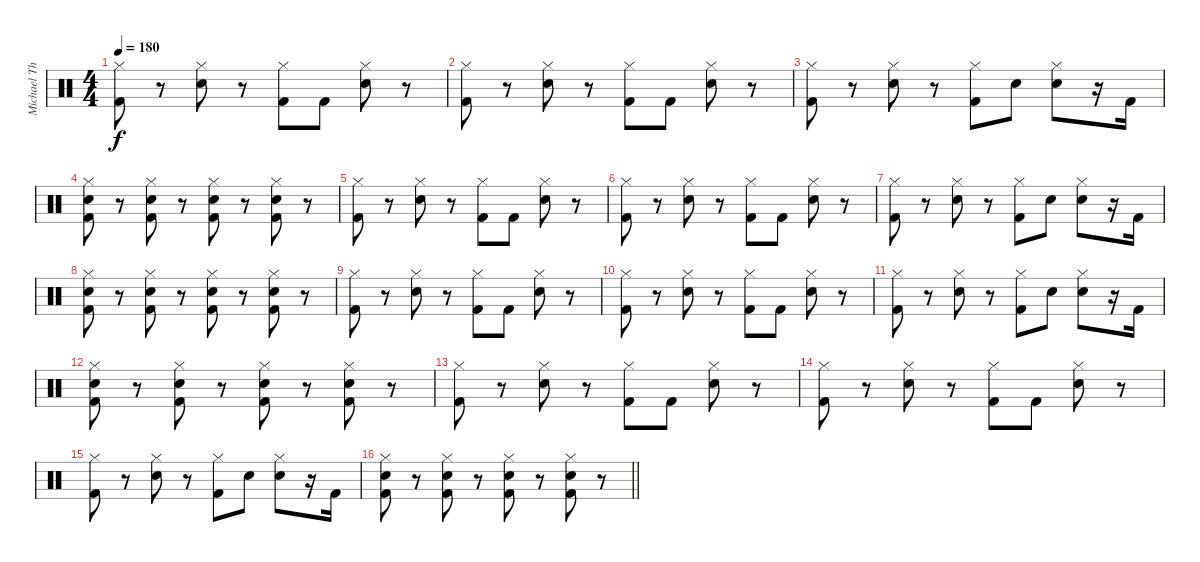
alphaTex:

\track ("Michael Thomas" "Michael Th") {instrument percussion}
\staff
\articulation defaults
\ts (4 4)
\tempo 180
\clef neutral
\ks c
("Hi-Hat (closed)" "Kick (hit) 2").8{dy f} r.8 ("Hi-Hat (closed)" "Electric Snare (hit)").8 r.8 ("Hi-Hat (closed)" "Kick (hit) 2").8 "Kick (hit) 2".8 ("Hi-Hat (closed)" "Electric Snare (hit)").8 r.8 |
("Hi-Hat (closed)" "Kick (hit) 2").8 r.8 ("Hi-Hat (closed)" "Electric Snare (hit)").8 r.8 ("Hi-Hat (closed)" "Kick (hit) 2").8 "Kick (hit) 2".8 ("Hi-Hat (closed)" "Electric Snare (hit)").8 r.8 |
("Hi-Hat (closed)" "Kick (hit) 2").8 r.8 ("Hi-Hat (closed)" "Electric Snare (hit)").8 r.8 ("Hi-Hat (closed)" "Kick (hit) 2").8 "Electric Snare (hit)".8 ("Hi-Hat (closed)" "Electric Snare (hit)").8 r.16 "Kick (hit) 2".16 |
("Hi-Hat (closed)" "Electric Snare (hit)" "Kick (hit) 2").8 r.8 ("Hi-Hat (closed)" "Electric Snare (hit)" "Kick (hit) 2").8 r.8 ("Hi-Hat (closed)" "Electric Snare (hit)" "Kick (hit) 2").8 r.8 ("Hi-Hat (closed)" "Electric Snare (hit)" "Kick (hit) 2").8 r.8 |
("Hi-Hat (closed)" "Kick (hit) 2").8 r.8 ("Hi-Hat (closed)" "Electric Snare (hit)").8 r.8 ("Hi-Hat (closed)" "Kick (hit) 2").8 "Kick (hit) 2".8 ("Hi-Hat (closed)" "Electric Snare (hit)").8 r.8 |
("Hi-Hat (closed)" "Kick (hit) 2").8 r.8 ("Hi-Hat (closed)" "Electric Snare (hit)").8 r.8 ("Hi-Hat (closed)" "Kick (hit) 2").8 "Kick (hit) 2".8 ("Hi-Hat (closed)" "Electric Snare (hit)").8 r.8 |
("Hi-Hat (closed)" "Kick (hit) 2").8 r.8 ("Hi-Hat (closed)" "Electric Snare (hit)").8 r.8 ("Hi-Hat (closed)" "Kick (hit) 2").8 "Electric Snare (hit)".8 ("Hi-Hat (closed)" "Electric Snare (hit)").8 r.16 "Kick (hit) 2".16 |
("Hi-Hat (closed)" "Electric Snare (hit)" "Kick (hit) 2").8 r.8 ("Hi-Hat (closed)" "Electric Snare (hit)" "Kick (hit) 2").8 r.8 ("Hi-Hat (closed)" "Electric Snare (hit)" "Kick (hit) 2").8 r.8 ("Hi-Hat (closed)" "Electric Snare (hit)" "Kick (hit) 2").8 r.8 |
("Hi-Hat (closed)" "Kick (hit) 2").8 r.8 ("Hi-Hat (closed)" "Electric Snare (hit)").8 r.8 ("Hi-Hat (closed)" "Kick (hit) 2").8 "Kick (hit) 2".8 ("Hi-Hat (closed)" "Electric Snare (hit)").8 r.8 |
("Hi-Hat (closed)" "Kick (hit) 2").8 r.8 ("Hi-Hat (closed)" "Electric Snare (hit)").8 r.8 ("Hi-Hat (closed)" "Kick (hit) 2").8 "Kick (hit) 2".8 ("Hi-Hat (closed)" "Electric Snare (hit)").8 r.8 |
("Hi-Hat (closed)" "Kick (hit) 2").8 r.8 ("Hi-Hat (closed)" "Electric Snare (hit)").8 r.8 ("Hi-Hat (closed)" "Kick (hit) 2").8 "Electric Snare (hit)".8 ("Hi-Hat (closed)" "Electric Snare (hit)").8 r.16 "Kick (hit) 2".16 |
("Hi-Hat (closed)" "Electric Snare (hit)" "Kick (hit) 2").8 r.8 ("Hi-Hat (closed)" "Electric Snare (hit)" "Kick (hit) 2").8 r.8 ("Hi-Hat (closed)" "Electric Snare (hit)" "Kick (hit) 2").8 r.8 ("Hi-Hat (closed)" "Electric Snare (hit)" "Kick (hit) 2").8 r.8 |
("Hi-Hat (closed)" "Kick (hit) 2").8 r.8 ("Hi-Hat (closed)" "Electric Snare (hit)").8 r.8 ("Hi-Hat (closed)" "Kick (hit) 2").8 "Kick (hit) 2".8 ("Hi-Hat (closed)" "Electric Snare (hit)").8 r.8 |
("Hi-Hat (closed)" "Kick (hit) 2").8 r.8 ("Hi-Hat (closed)" "Electric Snare (hit)").8 r.8 ("Hi-Hat (closed)" "Kick (hit) 2").8 "Kick (hit) 2".8 ("Hi-Hat (closed)" "Electric Snare (hit)").8 r.8 |
("Hi-Hat (closed)" "Kick (hit) 2").8 r.8 ("Hi-Hat (closed)" "Electric Snare (hit)").8 r.8 ("Hi-Hat (closed)" "Kick (hit) 2").8 "Electric Snare (hit)".8 ("Hi-Hat (closed)" "Electric Snare (hit)").8 r.16 "Kick (hit) 2".16 |
\barLineRight lightlight
("Hi-Hat (closed)" "Electric Snare (hit)" "Kick (hit) 2").8 r.8 ("Hi-Hat (closed)" "Electric Snare (hit)" "Kick (hit) 2").8 r.8 ("Hi-Hat (closed)" "Electric Snare (hit)" "Kick (hit) 2").8 r.8 ("Hi-Hat (closed)" "Electric Snare (hit)" "Kick (hit) 2").8 r.8
